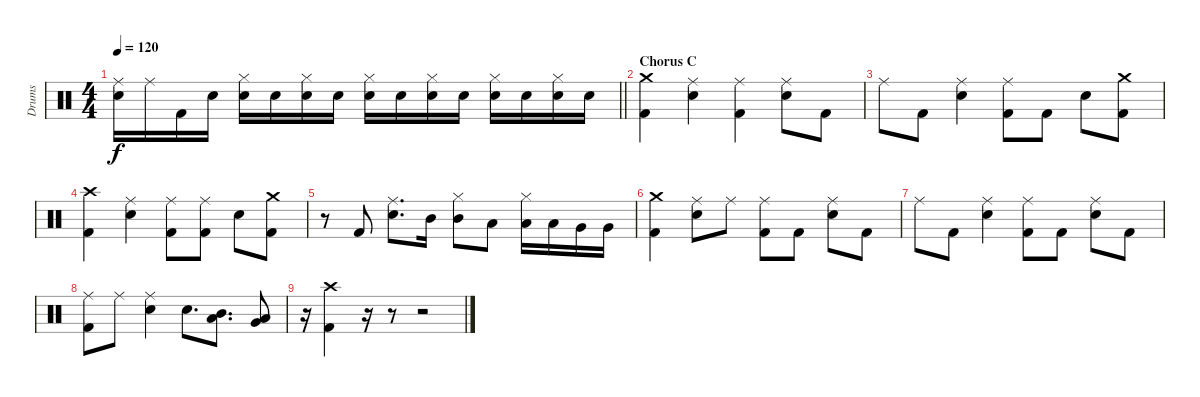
\track ("Drums" "Drums") {instrument percussion}
\staff {score}
\articulation defaults
\ts (4 4)
\tempo 120
\clef neutral
\barLineRight lightlight
\ks c
("Ride (middle)" "Electric Snare (hit)").16{dy f} "Ride (middle)".16 "Kick (hit) 2".16 "Electric Snare (hit)".16 ("Hi-Hat (closed)" "Electric Snare (hit)").16 "Electric Snare (hit)".16 ("Hi-Hat (closed)" "Electric Snare (hit)").16 "Electric Snare (hit)".16 ("Hi-Hat (closed)" "Electric Snare (hit)").16 "Electric Snare (hit)".16 ("Hi-Hat (closed)" "Electric Snare (hit)").16 "Electric Snare (hit)".16 ("Hi-Hat (closed)" "Electric Snare (hit)").16 "Electric Snare (hit)".16 ("Hi-Hat (closed)" "Electric Snare (hit)").16 "Electric Snare (hit)".16 |
\section ("" "Chorus C")
("Crash medium (hit)" "Kick (hit) 2").4 ("Ride (middle)" "Electric Snare (hit)").4 ("Ride (middle)" "Kick (hit) 2").4 ("Ride (middle)" "Electric Snare (hit)").8 "Kick (hit) 2".8 |
"Ride (middle)".8 "Kick (hit) 2".8 ("Ride (middle)" "Electric Snare (hit)").4 ("Ride (middle)" "Kick (hit) 2").8 "Kick (hit) 2".8 "Electric Snare (hit)".8 ("Crash medium (hit)" "Kick (hit) 2").8 |
("Crash high (hit)" "Kick (hit) 2").4 ("Ride (middle)" "Electric Snare (hit)").4 ("Ride (middle)" "Kick (hit) 2").8 ("Ride (middle)" "Kick (hit) 2").8 "Electric Snare (hit)".8 ("Crash medium (hit)" "Kick (hit) 2").8 |
r.8 "Kick (hit) 2".8 ("Ride (middle)" "Electric Snare (hit)").8{d} "Mid Tom (hit)".16 ("Mid Tom (hit)" "Hi-Hat (closed)").8 "Low Tom (hit)".8 ("Low Tom (hit)" "Hi-Hat (closed)").16 "Low Tom (hit)".16 "Very Low Tom (hit)".16 "Very Low Tom (hit)".16 |
("Crash medium (hit)" "Kick (hit) 2").4 ("Ride (middle)" "Electric Snare (hit)").8 "Ride (middle)".8 ("Ride (middle)" "Kick (hit) 2").8 "Kick (hit) 2".8 ("Ride (middle)" "Electric Snare (hit)").8 "Kick (hit) 2".8 |
"Ride (middle)".8 "Kick (hit) 2".8 ("Ride (middle)" "Electric Snare (hit)").4 ("Ride (middle)" "Kick (hit) 2").8 "Kick (hit) 2".8 ("Ride (middle)" "Electric Snare (hit)").8 "Kick (hit) 2".8 |
("Ride (middle)" "Kick (hit) 2").8 "Ride (middle)".8 ("Ride (middle)" "Electric Snare (hit)").4 "Electric Snare (hit)".8{d} ("Mid Tom (hit)" "Low Tom (hit)").8{d} ("Low Tom (hit)" "Very Low Tom (hit)").8 |
r.16 ("Crash high (hit)" "Kick (hit) 2").4 r.16 r.8 r.2
